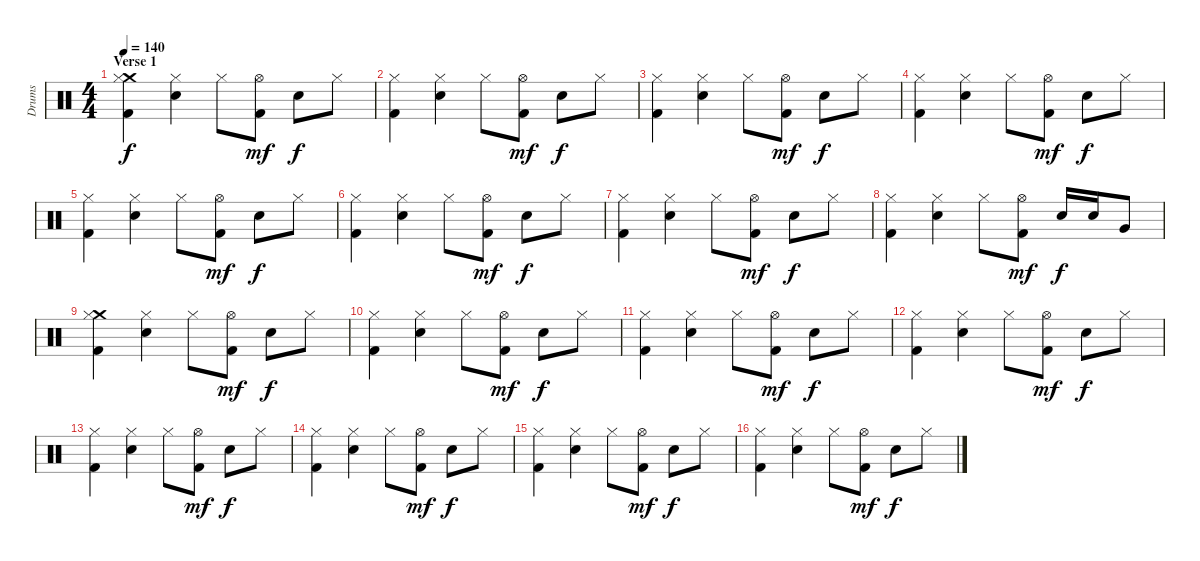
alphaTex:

\track ("Drums" "Drums") {instrument percussion}
\staff {score}
\articulation defaults
\ts (4 4)
\section ("" "Verse 1")
\tempo 140
\clef neutral
\ks c
("Crash medium (hit)" "Hi-Hat (closed)" "Kick (hit) 2").4{dy f} ("Hi-Hat (closed)" "Snare (hit) 2").4 "Hi-Hat (closed)".8 ("Hi-Hat (open)" "Kick (hit) 2").8{dy mf} "Snare (hit) 2".8{dy f} "Hi-Hat (closed)".8 |
("Hi-Hat (closed)" "Kick (hit) 2").4 ("Hi-Hat (closed)" "Snare (hit) 2").4 "Hi-Hat (closed)".8 ("Hi-Hat (open)" "Kick (hit) 2").8{dy mf} "Snare (hit) 2".8{dy f} "Hi-Hat (closed)".8 |
("Hi-Hat (closed)" "Kick (hit) 2").4 ("Hi-Hat (closed)" "Snare (hit) 2").4 "Hi-Hat (closed)".8 ("Hi-Hat (open)" "Kick (hit) 2").8{dy mf} "Snare (hit) 2".8{dy f} "Hi-Hat (closed)".8 |
("Hi-Hat (closed)" "Kick (hit) 2").4 ("Hi-Hat (closed)" "Snare (hit) 2").4 "Hi-Hat (closed)".8 ("Hi-Hat (open)" "Kick (hit) 2").8{dy mf} "Snare (hit) 2".8{dy f} "Hi-Hat (closed)".8 |
("Hi-Hat (closed)" "Kick (hit) 2").4 ("Hi-Hat (closed)" "Snare (hit) 2").4 "Hi-Hat (closed)".8 ("Hi-Hat (open)" "Kick (hit) 2").8{dy mf} "Snare (hit) 2".8{dy f} "Hi-Hat (closed)".8 |
("Hi-Hat (closed)" "Kick (hit) 2").4 ("Hi-Hat (closed)" "Snare (hit) 2").4 "Hi-Hat (closed)".8 ("Hi-Hat (open)" "Kick (hit) 2").8{dy mf} "Snare (hit) 2".8{dy f} "Hi-Hat (closed)".8 |
("Hi-Hat (closed)" "Kick (hit) 2").4 ("Hi-Hat (closed)" "Snare (hit) 2").4 "Hi-Hat (closed)".8 ("Hi-Hat (open)" "Kick (hit) 2").8{dy mf} "Snare (hit) 2".8{dy f} "Hi-Hat (closed)".8 |
("Hi-Hat (closed)" "Kick (hit) 2").4 ("Hi-Hat (closed)" "Snare (hit) 2").4 "Hi-Hat (closed)".8 ("Hi-Hat (open)" "Kick (hit) 2").8{dy mf} "Snare (hit) 2".16{dy f} "Snare (hit) 2".16 "Very Low Tom (hit)".8 |
("Crash medium (hit)" "Hi-Hat (closed)" "Kick (hit) 2").4 ("Hi-Hat (closed)" "Snare (hit) 2").4 "Hi-Hat (closed)".8 ("Hi-Hat (open)" "Kick (hit) 2").8{dy mf} "Snare (hit) 2".8{dy f} "Hi-Hat (closed)".8 |
("Hi-Hat (closed)" "Kick (hit) 2").4 ("Hi-Hat (closed)" "Snare (hit) 2").4 "Hi-Hat (closed)".8 ("Hi-Hat (open)" "Kick (hit) 2").8{dy mf} "Snare (hit) 2".8{dy f} "Hi-Hat (closed)".8 |
("Hi-Hat (closed)" "Kick (hit) 2").4 ("Hi-Hat (closed)" "Snare (hit) 2").4 "Hi-Hat (closed)".8 ("Hi-Hat (open)" "Kick (hit) 2").8{dy mf} "Snare (hit) 2".8{dy f} "Hi-Hat (closed)".8 |
("Hi-Hat (closed)" "Kick (hit) 2").4 ("Hi-Hat (closed)" "Snare (hit) 2").4 "Hi-Hat (closed)".8 ("Hi-Hat (open)" "Kick (hit) 2").8{dy mf} "Snare (hit) 2".8{dy f} "Hi-Hat (closed)".8 |
("Hi-Hat (closed)" "Kick (hit) 2").4 ("Hi-Hat (closed)" "Snare (hit) 2").4 "Hi-Hat (closed)".8 ("Hi-Hat (open)" "Kick (hit) 2").8{dy mf} "Snare (hit) 2".8{dy f} "Hi-Hat (closed)".8 |
("Hi-Hat (closed)" "Kick (hit) 2").4 ("Hi-Hat (closed)" "Snare (hit) 2").4 "Hi-Hat (closed)".8 ("Hi-Hat (open)" "Kick (hit) 2").8{dy mf} "Snare (hit) 2".8{dy f} "Hi-Hat (closed)".8 |
("Hi-Hat (closed)" "Kick (hit) 2").4 ("Hi-Hat (closed)" "Snare (hit) 2").4 "Hi-Hat (closed)".8 ("Hi-Hat (open)" "Kick (hit) 2").8{dy mf} "Snare (hit) 2".8{dy f} "Hi-Hat (closed)".8 |
("Hi-Hat (closed)" "Kick (hit) 2").4 ("Hi-Hat (closed)" "Snare (hit) 2").4 "Hi-Hat (closed)".8 ("Hi-Hat (open)" "Kick (hit) 2").8{dy mf} "Snare (hit) 2".8{dy f} "Hi-Hat (closed)".8
